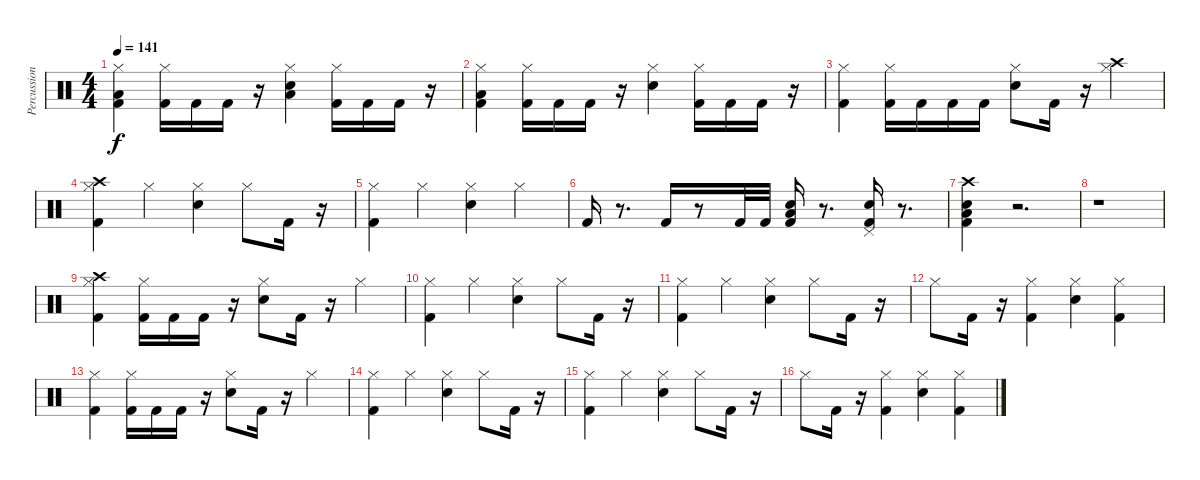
\track ("Percussion" "Percussion") {instrument percussion}
\staff {score}
\articulation defaults
\ts (4 4)
\tempo 141
\clef neutral
\ks c
("Kick (hit) 2" "Low Floor Tom (hit)" "Hi-Hat (closed)").4{dy f} ("Kick (hit) 2" "Hi-Hat (closed)").16 "Kick (hit) 2".16 "Kick (hit) 2".16 r.16 ("Snare (hit) 2" "Low Floor Tom (hit)" "Hi-Hat (closed)").4 ("Kick (hit) 2" "Hi-Hat (closed)").16 "Kick (hit) 2".16 "Kick (hit) 2".16 r.16 |
("Kick (hit) 2" "Low Floor Tom (hit)" "Hi-Hat (closed)").4 ("Kick (hit) 2" "Hi-Hat (closed)").16 "Kick (hit) 2".16 "Kick (hit) 2".16 r.16 ("Snare (hit) 2" "Hi-Hat (closed)").4 ("Kick (hit) 2" "Hi-Hat (closed)").16 "Kick (hit) 2".16 "Kick (hit) 2".16 r.16 |
("Kick (hit) 2" "Hi-Hat (closed)").4 ("Kick (hit) 2" "Hi-Hat (closed)").16 "Kick (hit) 2".16 "Kick (hit) 2".16 "Kick (hit) 2".16 ("Snare (hit) 2" "Hi-Hat (closed)").8 "Kick (hit) 2".16 r.16 ("Hi-Hat (closed)" "Crash high (hit)").4 |
("Kick (hit) 2" "Hi-Hat (closed)" "Crash high (hit)").4 "Hi-Hat (closed)".4 ("Snare (hit) 2" "Hi-Hat (closed)").4 "Hi-Hat (closed)".8 "Kick (hit) 2".16 r.16 |
("Kick (hit) 2" "Hi-Hat (closed)").4 "Hi-Hat (closed)".4 ("Snare (hit) 2" "Hi-Hat (closed)").4 "Hi-Hat (closed)".4 |
"Kick (hit) 2".16 r.8{d} "Kick (hit) 2".16 r.8 "Kick (hit) 2".32 "Kick (hit) 2".32 ("Kick (hit) 2" "Snare (hit) 2" "Low Tom (hit)").16 r.8{d} ("Kick (hit) 2" "Snare (hit) 2" "Pedal Hi-Hat (hit)").16 r.8{d} |
("Kick (hit) 2" "Snare (hit) 2" "Low Floor Tom (hit)" "Crash high (hit)").4 r.2{d} |
r.1 |
("Kick (hit) 2" "Hi-Hat (closed)" "Crash high (hit)").4 ("Kick (hit) 2" "Hi-Hat (closed)").16 "Kick (hit) 2".16 "Kick (hit) 2".16 r.16 ("Snare (hit) 2" "Hi-Hat (closed)").8 "Kick (hit) 2".16 r.16 "Hi-Hat (closed)".4 |
("Kick (hit) 2" "Hi-Hat (closed)").4 "Hi-Hat (closed)".4 ("Snare (hit) 2" "Hi-Hat (closed)").4 "Hi-Hat (closed)".8 "Kick (hit) 2".16 r.16 |
("Kick (hit) 2" "Hi-Hat (closed)").4 "Hi-Hat (closed)".4 ("Snare (hit) 2" "Hi-Hat (closed)").4 "Hi-Hat (closed)".8 "Kick (hit) 2".16 r.16 |
"Hi-Hat (closed)".8 "Kick (hit) 2".16 r.16 ("Kick (hit) 2" "Hi-Hat (closed)").4 ("Snare (hit) 2" "Hi-Hat (closed)").4 ("Kick (hit) 2" "Hi-Hat (closed)").4 |
("Kick (hit) 2" "Hi-Hat (closed)").4 ("Kick (hit) 2" "Hi-Hat (closed)").16 "Kick (hit) 2".16 "Kick (hit) 2".16 r.16 ("Snare (hit) 2" "Hi-Hat (closed)").8 "Kick (hit) 2".16 r.16 "Hi-Hat (closed)".4 |
("Kick (hit) 2" "Hi-Hat (closed)").4 "Hi-Hat (closed)".4 ("Snare (hit) 2" "Hi-Hat (closed)").4 "Hi-Hat (closed)".8 "Kick (hit) 2".16 r.16 |
("Kick (hit) 2" "Hi-Hat (closed)").4 "Hi-Hat (closed)".4 ("Snare (hit) 2" "Hi-Hat (closed)").4 "Hi-Hat (closed)".8 "Kick (hit) 2".16 r.16 |
"Hi-Hat (closed)".8 "Kick (hit) 2".16 r.16 ("Kick (hit) 2" "Hi-Hat (closed)").4 ("Snare (hit) 2" "Hi-Hat (closed)").4 ("Kick (hit) 2" "Hi-Hat (closed)").4
